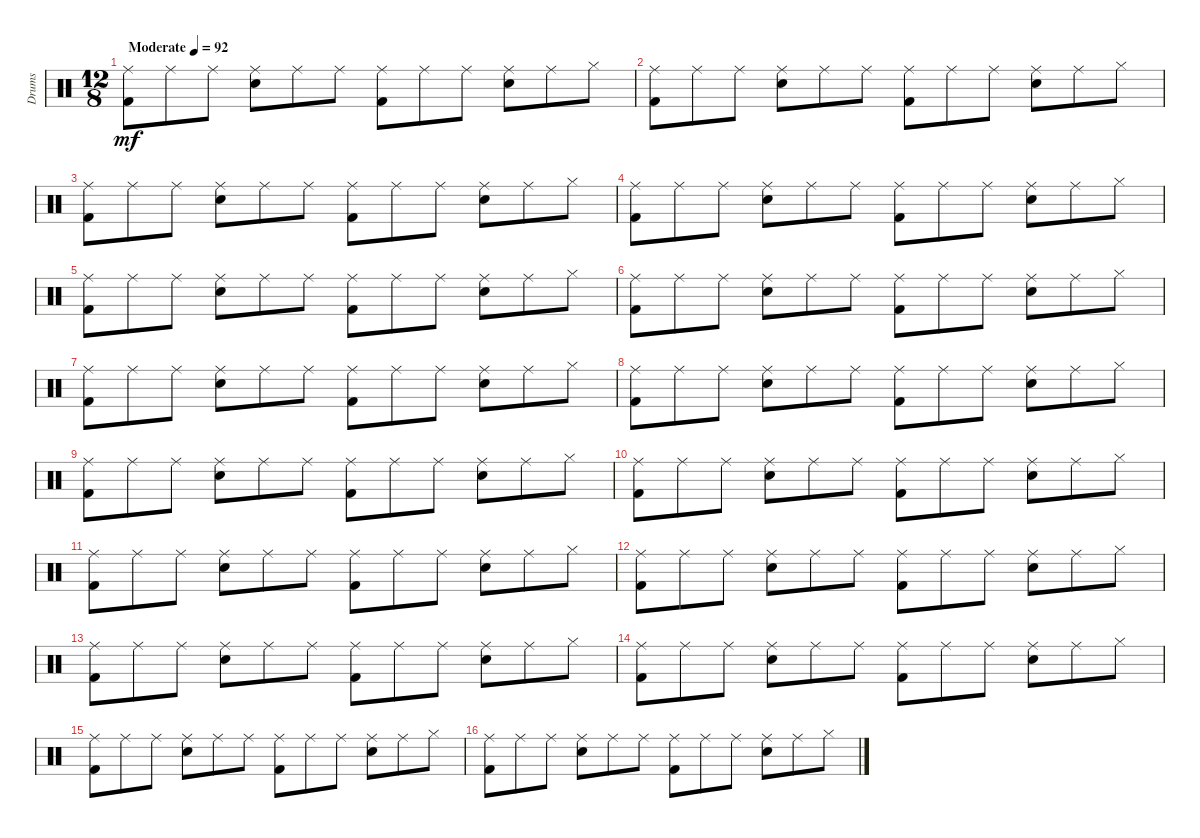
\track ("Drums" "Drums") {instrument percussion}
\staff {score}
\articulation defaults
\ts (12 8)
\tempo (92 "Moderate")
\clef neutral
\ks c
("Ride (middle)" "Kick (hit) 2").8{dy mf} "Ride (middle)".8 "Ride (middle)".8 ("Ride (middle)" "Electric Snare (hit)").8 "Ride (middle)".8 "Ride (middle)".8 ("Ride (middle)" "Kick (hit) 2").8 "Ride (middle)".8 "Ride (middle)".8 ("Ride (middle)" "Electric Snare (hit)").8 "Ride (middle)".8 "Hi-Hat (closed)".8 |
("Ride (middle)" "Kick (hit) 2").8 "Ride (middle)".8 "Ride (middle)".8 ("Ride (middle)" "Electric Snare (hit)").8 "Ride (middle)".8 "Ride (middle)".8 ("Ride (middle)" "Kick (hit) 2").8 "Ride (middle)".8 "Ride (middle)".8 ("Ride (middle)" "Electric Snare (hit)").8 "Ride (middle)".8 "Hi-Hat (closed)".8 |
("Ride (middle)" "Kick (hit) 2").8 "Ride (middle)".8 "Ride (middle)".8 ("Ride (middle)" "Electric Snare (hit)").8 "Ride (middle)".8 "Ride (middle)".8 ("Ride (middle)" "Kick (hit) 2").8 "Ride (middle)".8 "Ride (middle)".8 ("Ride (middle)" "Electric Snare (hit)").8 "Ride (middle)".8 "Hi-Hat (closed)".8 |
("Ride (middle)" "Kick (hit) 2").8 "Ride (middle)".8 "Ride (middle)".8 ("Ride (middle)" "Electric Snare (hit)").8 "Ride (middle)".8 "Ride (middle)".8 ("Ride (middle)" "Kick (hit) 2").8 "Ride (middle)".8 "Ride (middle)".8 ("Ride (middle)" "Electric Snare (hit)").8 "Ride (middle)".8 "Hi-Hat (closed)".8 |
("Ride (middle)" "Kick (hit) 2").8 "Ride (middle)".8 "Ride (middle)".8 ("Ride (middle)" "Electric Snare (hit)").8 "Ride (middle)".8 "Ride (middle)".8 ("Ride (middle)" "Kick (hit) 2").8 "Ride (middle)".8 "Ride (middle)".8 ("Ride (middle)" "Electric Snare (hit)").8 "Ride (middle)".8 "Hi-Hat (closed)".8 |
("Ride (middle)" "Kick (hit) 2").8 "Ride (middle)".8 "Ride (middle)".8 ("Ride (middle)" "Electric Snare (hit)").8 "Ride (middle)".8 "Ride (middle)".8 ("Ride (middle)" "Kick (hit) 2").8 "Ride (middle)".8 "Ride (middle)".8 ("Ride (middle)" "Electric Snare (hit)").8 "Ride (middle)".8 "Hi-Hat (closed)".8 |
("Ride (middle)" "Kick (hit) 2").8 "Ride (middle)".8 "Ride (middle)".8 ("Ride (middle)" "Electric Snare (hit)").8 "Ride (middle)".8 "Ride (middle)".8 ("Ride (middle)" "Kick (hit) 2").8 "Ride (middle)".8 "Ride (middle)".8 ("Ride (middle)" "Electric Snare (hit)").8 "Ride (middle)".8 "Hi-Hat (closed)".8 |
("Ride (middle)" "Kick (hit) 2").8 "Ride (middle)".8 "Ride (middle)".8 ("Ride (middle)" "Electric Snare (hit)").8 "Ride (middle)".8 "Ride (middle)".8 ("Ride (middle)" "Kick (hit) 2").8 "Ride (middle)".8 "Ride (middle)".8 ("Ride (middle)" "Electric Snare (hit)").8 "Ride (middle)".8 "Hi-Hat (closed)".8 |
("Ride (middle)" "Kick (hit) 2").8 "Ride (middle)".8 "Ride (middle)".8 ("Ride (middle)" "Electric Snare (hit)").8 "Ride (middle)".8 "Ride (middle)".8 ("Ride (middle)" "Kick (hit) 2").8 "Ride (middle)".8 "Ride (middle)".8 ("Ride (middle)" "Electric Snare (hit)").8 "Ride (middle)".8 "Hi-Hat (closed)".8 |
("Ride (middle)" "Kick (hit) 2").8 "Ride (middle)".8 "Ride (middle)".8 ("Ride (middle)" "Electric Snare (hit)").8 "Ride (middle)".8 "Ride (middle)".8 ("Ride (middle)" "Kick (hit) 2").8 "Ride (middle)".8 "Ride (middle)".8 ("Ride (middle)" "Electric Snare (hit)").8 "Ride (middle)".8 "Hi-Hat (closed)".8 |
("Ride (middle)" "Kick (hit) 2").8 "Ride (middle)".8 "Ride (middle)".8 ("Ride (middle)" "Electric Snare (hit)").8 "Ride (middle)".8 "Ride (middle)".8 ("Ride (middle)" "Kick (hit) 2").8 "Ride (middle)".8 "Ride (middle)".8 ("Ride (middle)" "Electric Snare (hit)").8 "Ride (middle)".8 "Hi-Hat (closed)".8 |
("Ride (middle)" "Kick (hit) 2").8 "Ride (middle)".8 "Ride (middle)".8 ("Ride (middle)" "Electric Snare (hit)").8 "Ride (middle)".8 "Ride (middle)".8 ("Ride (middle)" "Kick (hit) 2").8 "Ride (middle)".8 "Ride (middle)".8 ("Ride (middle)" "Electric Snare (hit)").8 "Ride (middle)".8 "Hi-Hat (closed)".8 |
("Ride (middle)" "Kick (hit) 2").8 "Ride (middle)".8 "Ride (middle)".8 ("Ride (middle)" "Electric Snare (hit)").8 "Ride (middle)".8 "Ride (middle)".8 ("Ride (middle)" "Kick (hit) 2").8 "Ride (middle)".8 "Ride (middle)".8 ("Ride (middle)" "Electric Snare (hit)").8 "Ride (middle)".8 "Hi-Hat (closed)".8 |
("Ride (middle)" "Kick (hit) 2").8 "Ride (middle)".8 "Ride (middle)".8 ("Ride (middle)" "Electric Snare (hit)").8 "Ride (middle)".8 "Ride (middle)".8 ("Ride (middle)" "Kick (hit) 2").8 "Ride (middle)".8 "Ride (middle)".8 ("Ride (middle)" "Electric Snare (hit)").8 "Ride (middle)".8 "Hi-Hat (closed)".8 |
("Ride (middle)" "Kick (hit) 2").8 "Ride (middle)".8 "Ride (middle)".8 ("Ride (middle)" "Electric Snare (hit)").8 "Ride (middle)".8 "Ride (middle)".8 ("Ride (middle)" "Kick (hit) 2").8 "Ride (middle)".8 "Ride (middle)".8 ("Ride (middle)" "Electric Snare (hit)").8 "Ride (middle)".8 "Hi-Hat (closed)".8 |
("Ride (middle)" "Kick (hit) 2").8 "Ride (middle)".8 "Ride (middle)".8 ("Ride (middle)" "Electric Snare (hit)").8 "Ride (middle)".8 "Ride (middle)".8 ("Ride (middle)" "Kick (hit) 2").8 "Ride (middle)".8 "Ride (middle)".8 ("Ride (middle)" "Electric Snare (hit)").8 "Ride (middle)".8 "Hi-Hat (closed)".8
